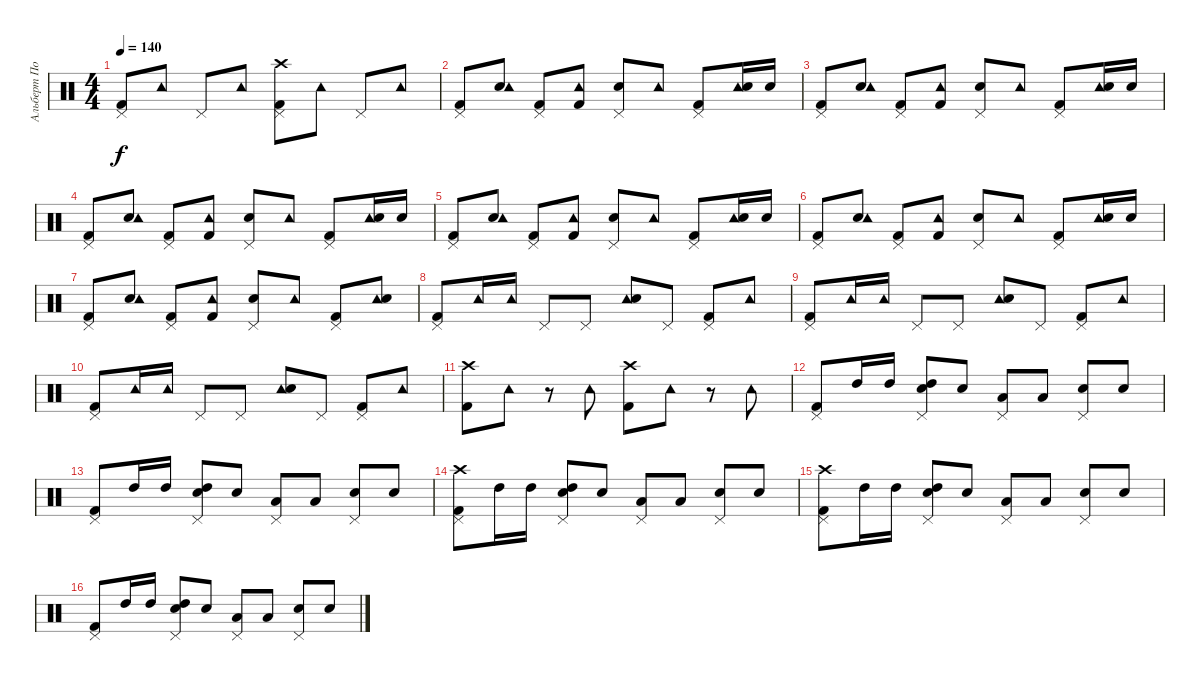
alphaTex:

\track ("Альберт Потапкин" "Альберт По") {instrument percussion}
\staff {score}
\articulation defaults
\ts (4 4)
\tempo 140
\clef neutral
\ks c
("Pedal Hi-Hat (hit)" "Kick (hit) 2").8{dy f} "Tambourine (hit)".8 "Pedal Hi-Hat (hit)".8 "Tambourine (hit)".8 ("Crash high (hit)" "Pedal Hi-Hat (hit)" "Kick (hit) 2").8 "Tambourine (hit)".8 "Pedal Hi-Hat (hit)".8 "Tambourine (hit)".8 |
("Pedal Hi-Hat (hit)" "Kick (hit) 2").8 ("Electric Snare (hit)" "Tambourine (hit)").8 ("Pedal Hi-Hat (hit)" "Kick (hit) 2").8 ("Kick (hit) 2" "Tambourine (hit)").8 ("Pedal Hi-Hat (hit)" "Snare (hit) 2").8 "Tambourine (hit)".8 ("Pedal Hi-Hat (hit)" "Kick (hit) 2").8 ("Tambourine (hit)" "Electric Snare (hit)").16 "Electric Snare (hit)".16 |
("Pedal Hi-Hat (hit)" "Kick (hit) 2").8 ("Electric Snare (hit)" "Tambourine (hit)").8 ("Pedal Hi-Hat (hit)" "Kick (hit) 2").8 ("Kick (hit) 2" "Tambourine (hit)").8 ("Pedal Hi-Hat (hit)" "Snare (hit) 2").8 "Tambourine (hit)".8 ("Pedal Hi-Hat (hit)" "Kick (hit) 2").8 ("Tambourine (hit)" "Electric Snare (hit)").16 "Electric Snare (hit)".16 |
("Pedal Hi-Hat (hit)" "Kick (hit) 2").8 ("Electric Snare (hit)" "Tambourine (hit)").8 ("Pedal Hi-Hat (hit)" "Kick (hit) 2").8 ("Kick (hit) 2" "Tambourine (hit)").8 ("Pedal Hi-Hat (hit)" "Snare (hit) 2").8 "Tambourine (hit)".8 ("Pedal Hi-Hat (hit)" "Kick (hit) 2").8 ("Tambourine (hit)" "Electric Snare (hit)").16 "Electric Snare (hit)".16 |
("Pedal Hi-Hat (hit)" "Kick (hit) 2").8 ("Electric Snare (hit)" "Tambourine (hit)").8 ("Pedal Hi-Hat (hit)" "Kick (hit) 2").8 ("Kick (hit) 2" "Tambourine (hit)").8 ("Pedal Hi-Hat (hit)" "Snare (hit) 2").8 "Tambourine (hit)".8 ("Pedal Hi-Hat (hit)" "Kick (hit) 2").8 ("Tambourine (hit)" "Electric Snare (hit)").16 "Electric Snare (hit)".16 |
("Pedal Hi-Hat (hit)" "Kick (hit) 2").8 ("Electric Snare (hit)" "Tambourine (hit)").8 ("Pedal Hi-Hat (hit)" "Kick (hit) 2").8 ("Kick (hit) 2" "Tambourine (hit)").8 ("Pedal Hi-Hat (hit)" "Snare (hit) 2").8 "Tambourine (hit)".8 ("Pedal Hi-Hat (hit)" "Kick (hit) 2").8 ("Tambourine (hit)" "Electric Snare (hit)").16 "Electric Snare (hit)".16 |
("Pedal Hi-Hat (hit)" "Kick (hit) 2").8 ("Electric Snare (hit)" "Tambourine (hit)").8 ("Pedal Hi-Hat (hit)" "Kick (hit) 2").8 ("Kick (hit) 2" "Tambourine (hit)").8 ("Pedal Hi-Hat (hit)" "Snare (hit) 2").8 "Tambourine (hit)".8 ("Pedal Hi-Hat (hit)" "Kick (hit) 2").8 ("Tambourine (hit)" "Electric Snare (hit)").8 |
("Pedal Hi-Hat (hit)" "Kick (hit) 2").8 "Tambourine (hit)".16 "Tambourine (hit)".16 "Pedal Hi-Hat (hit)".8 "Pedal Hi-Hat (hit)".8 ("Tambourine (hit)" "Snare (hit) 2").8 "Pedal Hi-Hat (hit)".8 ("Pedal Hi-Hat (hit)" "Kick (hit) 2").8 "Tambourine (hit)".8 |
("Pedal Hi-Hat (hit)" "Kick (hit) 2").8 "Tambourine (hit)".16 "Tambourine (hit)".16 "Pedal Hi-Hat (hit)".8 "Pedal Hi-Hat (hit)".8 ("Tambourine (hit)" "Snare (hit) 2").8 "Pedal Hi-Hat (hit)".8 ("Pedal Hi-Hat (hit)" "Kick (hit) 2").8 "Tambourine (hit)".8 |
("Pedal Hi-Hat (hit)" "Kick (hit) 2").8 "Tambourine (hit)".16 "Tambourine (hit)".16 "Pedal Hi-Hat (hit)".8 "Pedal Hi-Hat (hit)".8 ("Tambourine (hit)" "Snare (hit) 2").8 "Pedal Hi-Hat (hit)".8 ("Pedal Hi-Hat (hit)" "Kick (hit) 2").8 "Tambourine (hit)".8 |
("Crash high (hit)" "Kick (hit) 2").8 "Tambourine (hit)".8 r.8 "Tambourine (hit)".8 ("Kick (hit) 2" "Crash high (hit)").8 "Tambourine (hit)".8 r.8 "Tambourine (hit)".8 |
("Pedal Hi-Hat (hit)" "Kick (hit) 2").8 "High Tom (hit)".16 "High Tom (hit)".16 ("Pedal Hi-Hat (hit)" "Electric Snare (hit)" "High Tom (hit)").8 "Electric Snare (hit)".8 ("Pedal Hi-Hat (hit)" "Low Floor Tom (hit)").8 "Low Floor Tom (hit)".8 ("Pedal Hi-Hat (hit)" "Snare (hit) 2").8 "Snare (hit) 2".8 |
("Pedal Hi-Hat (hit)" "Kick (hit) 2").8 "High Tom (hit)".16 "High Tom (hit)".16 ("Pedal Hi-Hat (hit)" "Electric Snare (hit)" "High Tom (hit)").8 "Electric Snare (hit)".8 ("Pedal Hi-Hat (hit)" "Low Floor Tom (hit)").8 "Low Floor Tom (hit)".8 ("Pedal Hi-Hat (hit)" "Snare (hit) 2").8 "Snare (hit) 2".8 |
("Crash high (hit)" "Pedal Hi-Hat (hit)" "Kick (hit) 2").8 "High Tom (hit)".16 "High Tom (hit)".16 ("Pedal Hi-Hat (hit)" "Electric Snare (hit)" "High Tom (hit)").8 "Electric Snare (hit)".8 ("Pedal Hi-Hat (hit)" "Low Floor Tom (hit)").8 "Low Floor Tom (hit)".8 ("Pedal Hi-Hat (hit)" "Snare (hit) 2").8 "Snare (hit) 2".8 |
("Crash high (hit)" "Pedal Hi-Hat (hit)" "Kick (hit) 2").8 "High Tom (hit)".16 "High Tom (hit)".16 ("Pedal Hi-Hat (hit)" "Electric Snare (hit)" "High Tom (hit)").8 "Electric Snare (hit)".8 ("Pedal Hi-Hat (hit)" "Low Floor Tom (hit)").8 "Low Floor Tom (hit)".8 ("Pedal Hi-Hat (hit)" "Snare (hit) 2").8 "Snare (hit) 2".8 |
("Pedal Hi-Hat (hit)" "Kick (hit) 2").8 "High Tom (hit)".16 "High Tom (hit)".16 ("Pedal Hi-Hat (hit)" "Electric Snare (hit)" "High Tom (hit)").8 "Electric Snare (hit)".8 ("Pedal Hi-Hat (hit)" "Low Floor Tom (hit)").8 "Low Floor Tom (hit)".8 ("Pedal Hi-Hat (hit)" "Snare (hit) 2").8 "Snare (hit) 2".8
